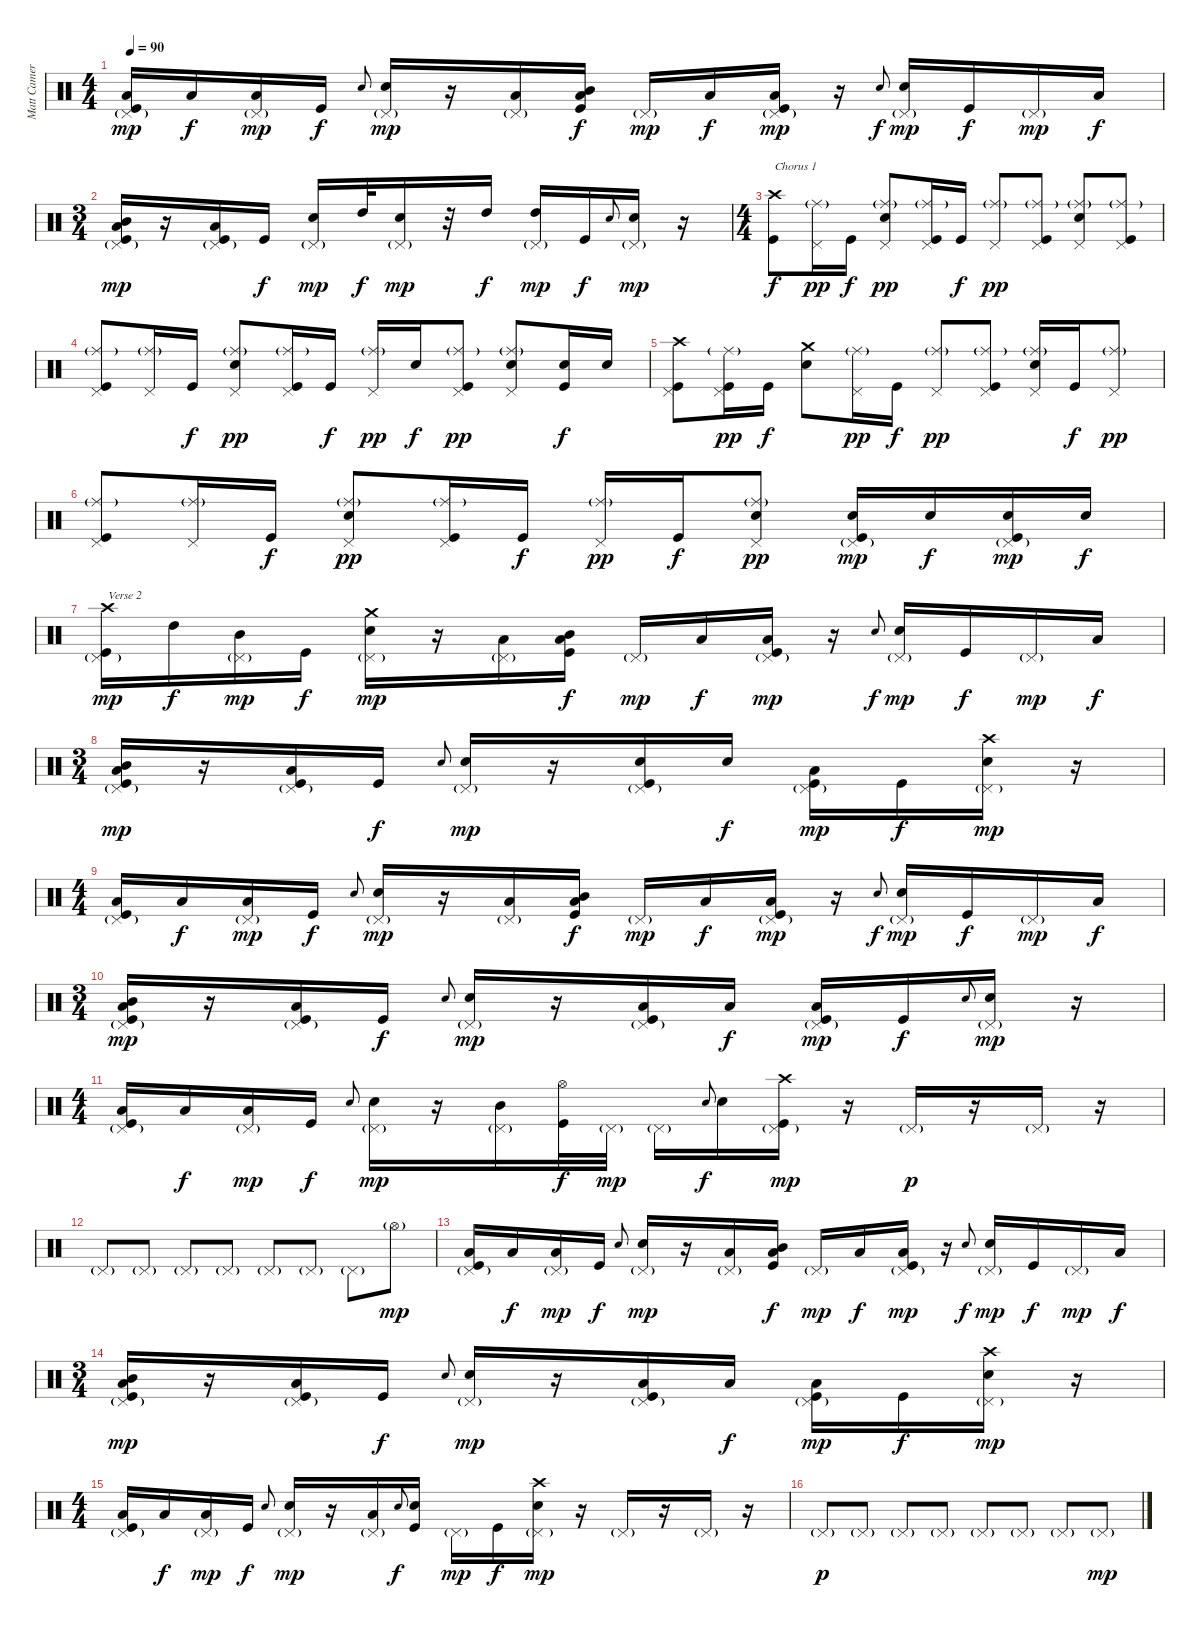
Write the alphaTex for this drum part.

\track ("Matt Cameron" "Matt Camer") {instrument percussion}
\staff {score}
\articulation defaults
\ts (4 4)
\tempo 90
\clef neutral
\ks c
("Low Floor Tom (hit)" "Pedal Hi-Hat (hit)"{g} "Kick (hit)").16{dy mp} "Low Floor Tom (hit)".16{dy f} ("Low Floor Tom (hit)" "Pedal Hi-Hat (hit)"{g}).16{dy mp} "Kick (hit)".16{dy f} "Electric Snare (hit)".8{gr onbeat} ("Electric Snare (hit)" "Pedal Hi-Hat (hit)"{g}).16{dy mp} r.16 ("Low Floor Tom (hit)" "Pedal Hi-Hat (hit)"{g}).16 ("Mid Tom (hit)" "Low Floor Tom (hit)" "Kick (hit)").16{dy f} "Pedal Hi-Hat (hit)"{g}.16{dy mp} "Low Floor Tom (hit)".16{dy f} ("Low Floor Tom (hit)" "Pedal Hi-Hat (hit)"{g} "Kick (hit)").16{dy mp} r.16 "Electric Snare (hit)".8{gr onbeat dy f} ("Electric Snare (hit)" "Pedal Hi-Hat (hit)"{g}).16{dy mp} "Kick (hit)".16{dy f} "Pedal Hi-Hat (hit)"{g}.16{dy mp} "Low Floor Tom (hit)".16{dy f} |
\ts (3 4)
("Mid Tom (hit)" "Low Floor Tom (hit)" "Pedal Hi-Hat (hit)"{g} "Kick (hit)").16{dy mp} r.16 ("Low Floor Tom (hit)" "Pedal Hi-Hat (hit)"{g} "Kick (hit)").16 "Kick (hit)".16{dy f} ("Electric Snare (hit)" "Pedal Hi-Hat (hit)"{g}).16{dy mp} "High Tom (hit)".32{dy f} ("Electric Snare (hit)" "Pedal Hi-Hat (hit)"{g}).16{dy mp} r.32 "High Tom (hit)".16{dy f} ("High Tom (hit)" "Pedal Hi-Hat (hit)"{g}).16{dy mp} "Kick (hit)".16{dy f} "Electric Snare (hit)".8{gr onbeat} ("Electric Snare (hit)" "Pedal Hi-Hat (hit)"{g}).16{dy mp} r.16 |
\ts (4 4)
("Crash high (hit)" "Kick (hit)").8{txt "Chorus 1" dy f} ("Ride (middle)"{g} "Pedal Hi-Hat (hit)").16{dy pp} "Kick (hit)".16{dy f} ("Ride (middle)"{g} "Electric Snare (hit)" "Pedal Hi-Hat (hit)").8{dy pp} ("Ride (middle)"{g} "Pedal Hi-Hat (hit)" "Kick (hit)").16 "Kick (hit)".16{dy f} ("Ride (middle)"{g} "Pedal Hi-Hat (hit)").8{dy pp} ("Ride (middle)"{g} "Pedal Hi-Hat (hit)" "Kick (hit)").8 ("Ride (middle)"{g} "Electric Snare (hit)" "Pedal Hi-Hat (hit)").8 ("Ride (middle)"{g} "Pedal Hi-Hat (hit)" "Kick (hit)").8 |
("Ride (middle)"{g} "Pedal Hi-Hat (hit)" "Kick (hit)").8 ("Ride (middle)"{g} "Pedal Hi-Hat (hit)").16 "Kick (hit)".16{dy f} ("Ride (middle)"{g} "Electric Snare (hit)" "Pedal Hi-Hat (hit)").8{dy pp} ("Ride (middle)"{g} "Pedal Hi-Hat (hit)" "Kick (hit)").16 "Kick (hit)".16{dy f} ("Ride (middle)"{g} "Pedal Hi-Hat (hit)").16{dy pp} "Electric Snare (hit)".16{dy f} ("Ride (middle)"{g} "Pedal Hi-Hat (hit)" "Kick (hit)").8{dy pp} ("Ride (middle)"{g} "Electric Snare (hit)" "Pedal Hi-Hat (hit)").8 ("Electric Snare (hit)" "Kick (hit)").16{dy f} "Electric Snare (hit)".16 |
("Crash high (hit)" "Pedal Hi-Hat (hit)" "Kick (hit)").8 ("Ride (middle)"{g} "Pedal Hi-Hat (hit)" "Kick (hit)").16{dy pp} "Kick (hit)".16{dy f} ("Crash medium (hit)" "Electric Snare (hit)").8 ("Ride (middle)"{g} "Pedal Hi-Hat (hit)").16{dy pp} "Kick (hit)".16{dy f} ("Ride (middle)"{g} "Pedal Hi-Hat (hit)").8{dy pp} ("Ride (middle)"{g} "Pedal Hi-Hat (hit)" "Kick (hit)").8 ("Ride (middle)"{g} "Electric Snare (hit)" "Pedal Hi-Hat (hit)").16 "Kick (hit)".16{dy f} ("Ride (middle)"{g} "Pedal Hi-Hat (hit)").8{dy pp} |
("Ride (middle)"{g} "Pedal Hi-Hat (hit)" "Kick (hit)").8 ("Ride (middle)"{g} "Pedal Hi-Hat (hit)").16 "Kick (hit)".16{dy f} ("Ride (middle)"{g} "Electric Snare (hit)" "Pedal Hi-Hat (hit)").8{dy pp} ("Ride (middle)"{g} "Pedal Hi-Hat (hit)" "Kick (hit)").16 "Kick (hit)".16{dy f} ("Ride (middle)"{g} "Pedal Hi-Hat (hit)").16{dy pp} "Kick (hit)".16{dy f} ("Ride (middle)"{g} "Electric Snare (hit)" "Pedal Hi-Hat (hit)").8{dy pp} ("Electric Snare (hit)" "Pedal Hi-Hat (hit)"{g} "Kick (hit)").16{dy mp} "Electric Snare (hit)".16{dy f} ("Electric Snare (hit)" "Pedal Hi-Hat (hit)"{g} "Kick (hit)").16{dy mp} "Electric Snare (hit)".16{dy f} |
("Crash high (hit)" "Pedal Hi-Hat (hit)"{g} "Kick (hit)").16{txt "Verse 2" dy mp} "High Tom (hit)".16{dy f} ("Mid Tom (hit)" "Pedal Hi-Hat (hit)"{g}).16{dy mp} "Kick (hit)".16{dy f} ("Crash medium (hit)" "Electric Snare (hit)" "Pedal Hi-Hat (hit)"{g}).16{dy mp} r.16 ("Low Floor Tom (hit)" "Pedal Hi-Hat (hit)"{g}).16 ("Mid Tom (hit)" "Low Floor Tom (hit)" "Kick (hit)").16{dy f} "Pedal Hi-Hat (hit)"{g}.16{dy mp} "Low Floor Tom (hit)".16{dy f} ("Low Floor Tom (hit)" "Pedal Hi-Hat (hit)"{g} "Kick (hit)").16{dy mp} r.16 "Electric Snare (hit)".8{gr onbeat dy f} ("Electric Snare (hit)" "Pedal Hi-Hat (hit)"{g}).16{dy mp} "Kick (hit)".16{dy f} "Pedal Hi-Hat (hit)"{g}.16{dy mp} "Low Floor Tom (hit)".16{dy f} |
\ts (3 4)
("Mid Tom (hit)" "Low Floor Tom (hit)" "Pedal Hi-Hat (hit)"{g} "Kick (hit)").16{dy mp} r.16 ("Low Floor Tom (hit)" "Pedal Hi-Hat (hit)"{g} "Kick (hit)").16 "Kick (hit)".16{dy f} "Electric Snare (hit)".8{gr onbeat} ("Electric Snare (hit)" "Pedal Hi-Hat (hit)"{g}).16{dy mp} r.16 ("Electric Snare (hit)" "Pedal Hi-Hat (hit)"{g} "Kick (hit)").16 "Electric Snare (hit)".16{dy f} ("Low Floor Tom (hit)" "Pedal Hi-Hat (hit)"{g} "Kick (hit)").16{dy mp} "Kick (hit)".16{dy f} ("Crash high (hit)" "Electric Snare (hit)" "Pedal Hi-Hat (hit)"{g}).16{dy mp} r.16 |
\ts (4 4)
("Low Floor Tom (hit)" "Pedal Hi-Hat (hit)"{g} "Kick (hit)").16 "Low Floor Tom (hit)".16{dy f} ("Low Floor Tom (hit)" "Pedal Hi-Hat (hit)"{g}).16{dy mp} "Kick (hit)".16{dy f} "Electric Snare (hit)".8{gr onbeat} ("Electric Snare (hit)" "Pedal Hi-Hat (hit)"{g}).16{dy mp} r.16 ("Low Floor Tom (hit)" "Pedal Hi-Hat (hit)"{g}).16 ("Mid Tom (hit)" "Low Floor Tom (hit)" "Kick (hit)").16{dy f} "Pedal Hi-Hat (hit)"{g}.16{dy mp} "Low Floor Tom (hit)".16{dy f} ("Low Floor Tom (hit)" "Pedal Hi-Hat (hit)"{g} "Kick (hit)").16{dy mp} r.16 "Electric Snare (hit)".8{gr onbeat dy f} ("Electric Snare (hit)" "Pedal Hi-Hat (hit)"{g}).16{dy mp} "Kick (hit)".16{dy f} "Pedal Hi-Hat (hit)"{g}.16{dy mp} "Low Floor Tom (hit)".16{dy f} |
\ts (3 4)
("Mid Tom (hit)" "Low Floor Tom (hit)" "Pedal Hi-Hat (hit)"{g} "Kick (hit)").16{dy mp} r.16 ("Low Floor Tom (hit)" "Pedal Hi-Hat (hit)"{g} "Kick (hit)").16 "Kick (hit)".16{dy f} "Electric Snare (hit)".8{gr onbeat} ("Electric Snare (hit)" "Pedal Hi-Hat (hit)"{g}).16{dy mp} r.16 ("Low Floor Tom (hit)" "Pedal Hi-Hat (hit)"{g} "Kick (hit)").16 "Low Floor Tom (hit)".16{dy f} ("Low Floor Tom (hit)" "Pedal Hi-Hat (hit)"{g} "Kick (hit)").16{dy mp} "Kick (hit)".16{dy f} "Electric Snare (hit)".8{gr onbeat} ("Electric Snare (hit)" "Pedal Hi-Hat (hit)"{g}).16{dy mp} r.16 |
\ts (4 4)
("Low Floor Tom (hit)" "Pedal Hi-Hat (hit)"{g} "Kick (hit)").16 "Low Floor Tom (hit)".16{dy f} ("Low Floor Tom (hit)" "Pedal Hi-Hat (hit)"{g}).16{dy mp} "Kick (hit)".16{dy f} "Electric Snare (hit)".8{gr onbeat} ("Electric Snare (hit)" "Pedal Hi-Hat (hit)"{g}).16{dy mp} r.16 ("Mid Tom (hit)" "Pedal Hi-Hat (hit)"{g}).16 ("Hi-Hat (open)" "Kick (hit)").32{dy f} "Pedal Hi-Hat (hit)"{g}.32{dy mp} "Pedal Hi-Hat (hit)"{g}.16 "Electric Snare (hit)".8{gr onbeat dy f} "Electric Snare (hit)".16 ("Crash high (hit)" "Pedal Hi-Hat (hit)"{g} "Kick (hit)").16{dy mp} r.16 "Pedal Hi-Hat (hit)"{g}.16{dy p} r.16 "Pedal Hi-Hat (hit)"{g}.16 r.16 |
"Pedal Hi-Hat (hit)"{g}.8 "Pedal Hi-Hat (hit)"{g}.8 "Pedal Hi-Hat (hit)"{g}.8 "Pedal Hi-Hat (hit)"{g}.8 "Pedal Hi-Hat (hit)"{g}.8 "Pedal Hi-Hat (hit)"{g}.8 "Pedal Hi-Hat (hit)"{g}.8 "Hi-Hat (open)"{g}.8{dy mp} |
("Low Floor Tom (hit)" "Pedal Hi-Hat (hit)"{g} "Kick (hit)").16 "Low Floor Tom (hit)".16{dy f} ("Low Floor Tom (hit)" "Pedal Hi-Hat (hit)"{g}).16{dy mp} "Kick (hit)".16{dy f} "Electric Snare (hit)".8{gr onbeat} ("Electric Snare (hit)" "Pedal Hi-Hat (hit)"{g}).16{dy mp} r.16 ("Low Floor Tom (hit)" "Pedal Hi-Hat (hit)"{g}).16 ("Mid Tom (hit)" "Low Floor Tom (hit)" "Kick (hit)").16{dy f} "Pedal Hi-Hat (hit)"{g}.16{dy mp} "Low Floor Tom (hit)".16{dy f} ("Low Floor Tom (hit)" "Pedal Hi-Hat (hit)"{g} "Kick (hit)").16{dy mp} r.16 "Electric Snare (hit)".8{gr onbeat dy f} ("Electric Snare (hit)" "Pedal Hi-Hat (hit)"{g}).16{dy mp} "Kick (hit)".16{dy f} "Pedal Hi-Hat (hit)"{g}.16{dy mp} "Low Floor Tom (hit)".16{dy f} |
\ts (3 4)
("Mid Tom (hit)" "Low Floor Tom (hit)" "Pedal Hi-Hat (hit)"{g} "Kick (hit)").16{dy mp} r.16 ("Low Floor Tom (hit)" "Pedal Hi-Hat (hit)"{g} "Kick (hit)").16 "Kick (hit)".16{dy f} "Electric Snare (hit)".8{gr onbeat} ("Electric Snare (hit)" "Pedal Hi-Hat (hit)"{g}).16{dy mp} r.16 ("Low Floor Tom (hit)" "Pedal Hi-Hat (hit)"{g} "Kick (hit)").16 "Low Floor Tom (hit)".16{dy f} ("Low Floor Tom (hit)" "Pedal Hi-Hat (hit)"{g} "Kick (hit)").16{dy mp} "Kick (hit)".16{dy f} ("Crash high (hit)" "Electric Snare (hit)" "Pedal Hi-Hat (hit)"{g}).16{dy mp} r.16 |
\ts (4 4)
("Low Floor Tom (hit)" "Pedal Hi-Hat (hit)"{g} "Kick (hit)").16 "Low Floor Tom (hit)".16{dy f} ("Low Floor Tom (hit)" "Pedal Hi-Hat (hit)"{g}).16{dy mp} "Kick (hit)".16{dy f} "Electric Snare (hit)".8{gr onbeat} ("Electric Snare (hit)" "Pedal Hi-Hat (hit)"{g}).16{dy mp} r.16 ("Low Floor Tom (hit)" "Pedal Hi-Hat (hit)"{g}).16 "Electric Snare (hit)".8{gr onbeat dy f} ("Electric Snare (hit)" "Kick (hit)").16 "Pedal Hi-Hat (hit)"{g}.16{dy mp} "Kick (hit)".16{dy f} ("Crash high (hit)" "Electric Snare (hit)" "Pedal Hi-Hat (hit)"{g}).16{dy mp} r.16 "Pedal Hi-Hat (hit)"{g}.16 r.16 "Pedal Hi-Hat (hit)"{g}.16 r.16 |
"Pedal Hi-Hat (hit)"{g}.8{dy p} "Pedal Hi-Hat (hit)"{g}.8 "Pedal Hi-Hat (hit)"{g}.8 "Pedal Hi-Hat (hit)"{g}.8 "Pedal Hi-Hat (hit)"{g}.8 "Pedal Hi-Hat (hit)"{g}.8 "Pedal Hi-Hat (hit)"{g}.8 "Pedal Hi-Hat (hit)"{g}.8{dy mp}
